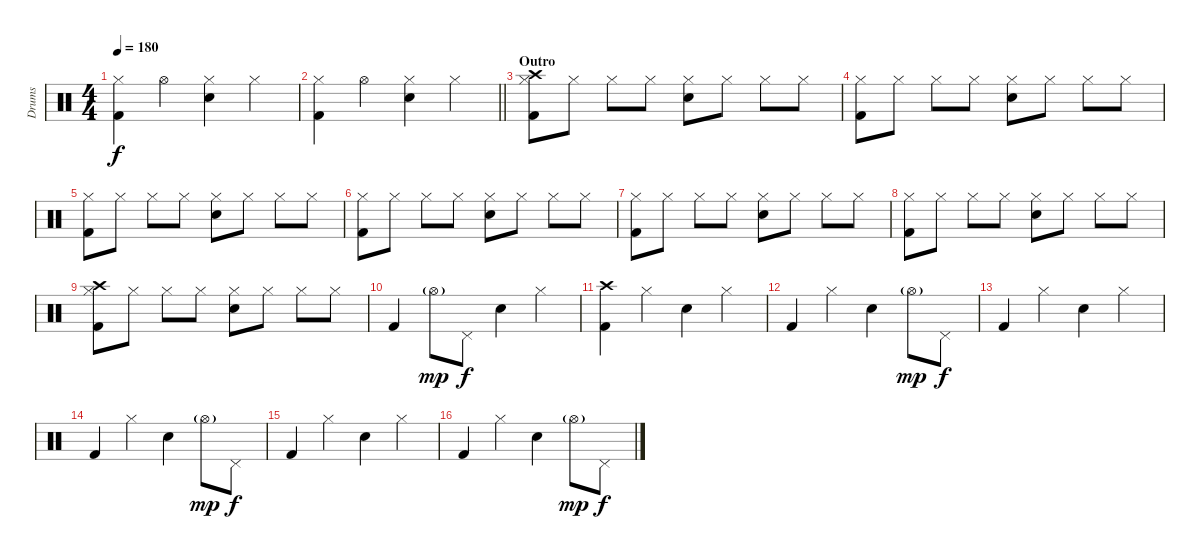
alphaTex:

\track ("Drums" "Drums") {instrument percussion}
\staff
\articulation defaults
\ts (4 4)
\tempo 180
\clef neutral
\ks c
("Hi-Hat (closed)" "Kick (hit) 2").4{dy f} "Hi-Hat (open)".4 ("Hi-Hat (closed)" "Electric Snare (hit)").4 "Hi-Hat (closed)".4 |
\barLineRight lightlight
("Hi-Hat (closed)" "Kick (hit) 2").4 "Hi-Hat (open)".4 ("Hi-Hat (closed)" "Electric Snare (hit)").4 "Hi-Hat (closed)".4 |
\section ("" "Outro")
("Crash high (hit)" "Hi-Hat (closed)" "Kick (hit) 2").8 "Hi-Hat (closed)".8 "Hi-Hat (closed)".8 "Hi-Hat (closed)".8 ("Hi-Hat (closed)" "Electric Snare (hit)").8 "Hi-Hat (closed)".8 "Hi-Hat (closed)".8 "Hi-Hat (closed)".8 |
("Hi-Hat (closed)" "Kick (hit) 2").8 "Hi-Hat (closed)".8 "Hi-Hat (closed)".8 "Hi-Hat (closed)".8 ("Hi-Hat (closed)" "Electric Snare (hit)").8 "Hi-Hat (closed)".8 "Hi-Hat (closed)".8 "Hi-Hat (closed)".8 |
("Hi-Hat (closed)" "Kick (hit) 2").8 "Hi-Hat (closed)".8 "Hi-Hat (closed)".8 "Hi-Hat (closed)".8 ("Hi-Hat (closed)" "Electric Snare (hit)").8 "Hi-Hat (closed)".8 "Hi-Hat (closed)".8 "Hi-Hat (closed)".8 |
("Hi-Hat (closed)" "Kick (hit) 2").8 "Hi-Hat (closed)".8 "Hi-Hat (closed)".8 "Hi-Hat (closed)".8 ("Hi-Hat (closed)" "Electric Snare (hit)").8 "Hi-Hat (closed)".8 "Hi-Hat (closed)".8 "Hi-Hat (closed)".8 |
("Hi-Hat (closed)" "Kick (hit) 2").8 "Hi-Hat (closed)".8 "Hi-Hat (closed)".8 "Hi-Hat (closed)".8 ("Hi-Hat (closed)" "Electric Snare (hit)").8 "Hi-Hat (closed)".8 "Hi-Hat (closed)".8 "Hi-Hat (closed)".8 |
("Hi-Hat (closed)" "Kick (hit) 2").8 "Hi-Hat (closed)".8 "Hi-Hat (closed)".8 "Hi-Hat (closed)".8 ("Hi-Hat (closed)" "Electric Snare (hit)").8 "Hi-Hat (closed)".8 "Hi-Hat (closed)".8 "Hi-Hat (closed)".8 |
("Crash high (hit)" "Hi-Hat (closed)" "Kick (hit) 2").8 "Hi-Hat (closed)".8 "Hi-Hat (closed)".8 "Hi-Hat (closed)".8 ("Hi-Hat (closed)" "Electric Snare (hit)").8 "Hi-Hat (closed)".8 "Hi-Hat (closed)".8 "Hi-Hat (closed)".8 |
"Kick (hit) 2".4 "Hi-Hat (open)"{g}.8{dy mp} "Pedal Hi-Hat (hit)".8{dy f} "Electric Snare (hit)".4 "Hi-Hat (closed)".4 |
("Crash high (hit)" "Kick (hit) 2").4 "Hi-Hat (closed)".4 "Electric Snare (hit)".4 "Hi-Hat (closed)".4 |
"Kick (hit) 2".4 "Hi-Hat (closed)".4 "Electric Snare (hit)".4 "Hi-Hat (open)"{g}.8{dy mp} "Pedal Hi-Hat (hit)".8{dy f} |
"Kick (hit) 2".4 "Hi-Hat (closed)".4 "Electric Snare (hit)".4 "Hi-Hat (closed)".4 |
"Kick (hit) 2".4 "Hi-Hat (closed)".4 "Electric Snare (hit)".4 "Hi-Hat (open)"{g}.8{dy mp} "Pedal Hi-Hat (hit)".8{dy f} |
"Kick (hit) 2".4 "Hi-Hat (closed)".4 "Electric Snare (hit)".4 "Hi-Hat (closed)".4 |
"Kick (hit) 2".4 "Hi-Hat (closed)".4 "Electric Snare (hit)".4 "Hi-Hat (open)"{g}.8{dy mp} "Pedal Hi-Hat (hit)".8{dy f}
